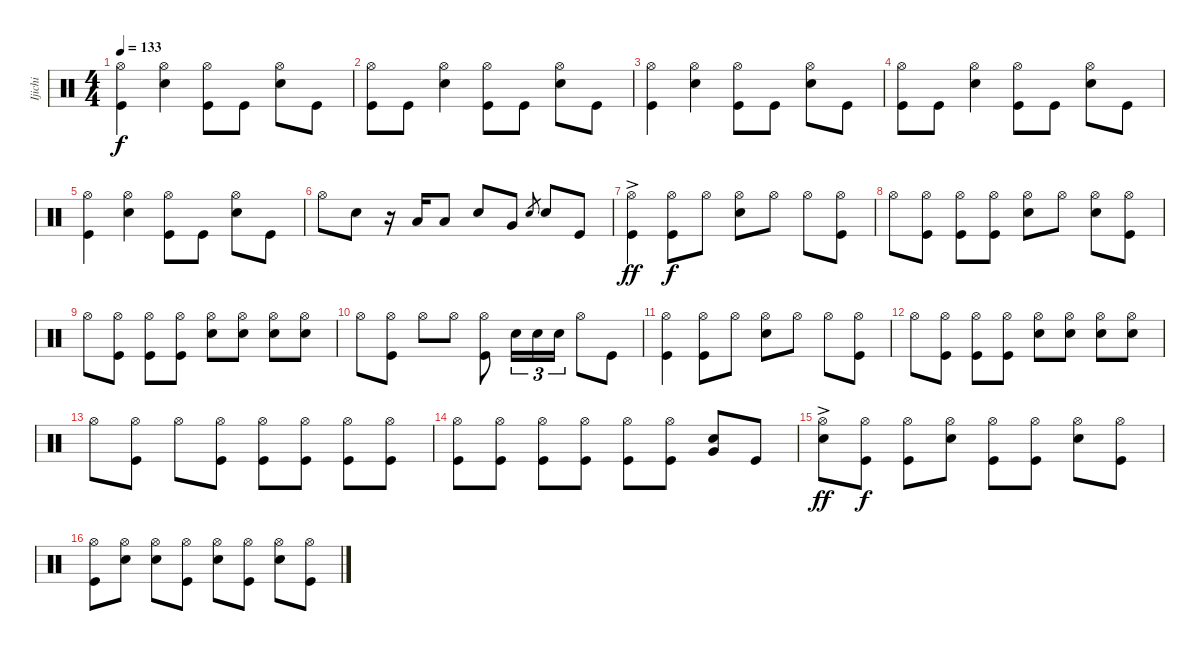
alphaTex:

\track ("Ijichi" "Ijichi") {instrument percussion}
\staff {score}
\articulation defaults
\ts (4 4)
\tempo 133
\clef neutral
\ks c
("Hi-Hat (open)" "Kick (hit)").4{dy f} ("Hi-Hat (open)" "Snare (hit) 2").4 ("Hi-Hat (open)" "Kick (hit)").8 "Kick (hit)".8 ("Hi-Hat (open)" "Snare (hit) 2").8 "Kick (hit)".8 |
("Hi-Hat (open)" "Kick (hit)").8 "Kick (hit)".8 ("Hi-Hat (open)" "Snare (hit) 2").4 ("Hi-Hat (open)" "Kick (hit)").8 "Kick (hit)".8 ("Hi-Hat (open)" "Snare (hit) 2").8 "Kick (hit)".8 |
("Hi-Hat (open)" "Kick (hit)").4 ("Hi-Hat (open)" "Snare (hit) 2").4 ("Hi-Hat (open)" "Kick (hit)").8 "Kick (hit)".8 ("Hi-Hat (open)" "Snare (hit) 2").8 "Kick (hit)".8 |
("Hi-Hat (open)" "Kick (hit)").8 "Kick (hit)".8 ("Hi-Hat (open)" "Snare (hit) 2").4 ("Hi-Hat (open)" "Kick (hit)").8 "Kick (hit)".8 ("Hi-Hat (open)" "Snare (hit) 2").8 "Kick (hit)".8 |
("Hi-Hat (open)" "Kick (hit)").4 ("Hi-Hat (open)" "Snare (hit) 2").4 ("Hi-Hat (open)" "Kick (hit)").8 "Kick (hit)".8 ("Hi-Hat (open)" "Snare (hit) 2").8 "Kick (hit)".8 |
"Hi-Hat (open)".8 "Snare (hit) 2".8 r.16 "Low Tom (hit)".16 "Low Tom (hit)".8 "Snare (hit) 2".8 "Very Low Tom (hit)".8 "Snare (hit) 2".8{gr} "Snare (hit) 2".8 "Kick (hit)".8 |
("Hi-Hat (open)"{ac} "Kick (hit)").4{dy ff} ("Hi-Hat (open)" "Kick (hit)").8{dy f} "Hi-Hat (open)".8 ("Hi-Hat (open)" "Snare (hit) 2").8 "Hi-Hat (open)".8 "Hi-Hat (open)".8 ("Hi-Hat (open)" "Kick (hit)").8 |
"Hi-Hat (open)".8 ("Hi-Hat (open)" "Kick (hit)").8 ("Hi-Hat (open)" "Kick (hit)").8 ("Hi-Hat (open)" "Kick (hit)").8 ("Hi-Hat (open)" "Snare (hit) 2").8 "Hi-Hat (open)".8 ("Hi-Hat (open)" "Snare (hit) 2").8 ("Hi-Hat (open)" "Kick (hit)").8 |
"Hi-Hat (open)".8 ("Hi-Hat (open)" "Kick (hit)").8 ("Hi-Hat (open)" "Kick (hit)").8 ("Hi-Hat (open)" "Kick (hit)").8 ("Hi-Hat (open)" "Snare (hit) 2").8 ("Hi-Hat (open)" "Snare (hit) 2").8 ("Hi-Hat (open)" "Snare (hit) 2").8 ("Hi-Hat (open)" "Snare (hit) 2").8 |
"Hi-Hat (open)".8 ("Hi-Hat (open)" "Kick (hit)").8 "Hi-Hat (open)".8 "Hi-Hat (open)".8 ("Hi-Hat (open)" "Kick (hit)").8 "Snare (hit) 2".16{tu (3 2)} "Snare (hit) 2".16{tu (3 2)} "Snare (hit) 2".16{tu (3 2)} "Hi-Hat (open)".8 "Kick (hit)".8 |
("Hi-Hat (open)" "Kick (hit)").4 ("Hi-Hat (open)" "Kick (hit)").8 "Hi-Hat (open)".8 ("Hi-Hat (open)" "Snare (hit) 2").8 "Hi-Hat (open)".8 "Hi-Hat (open)".8 ("Hi-Hat (open)" "Kick (hit)").8 |
"Hi-Hat (open)".8 ("Hi-Hat (open)" "Kick (hit)").8 ("Hi-Hat (open)" "Kick (hit)").8 ("Hi-Hat (open)" "Kick (hit)").8 ("Hi-Hat (open)" "Snare (hit) 2").8 ("Hi-Hat (open)" "Snare (hit) 2").8 ("Hi-Hat (open)" "Snare (hit) 2").8 ("Hi-Hat (open)" "Snare (hit) 2").8 |
"Hi-Hat (open)".8 ("Hi-Hat (open)" "Kick (hit)").8 "Hi-Hat (open)".8 ("Hi-Hat (open)" "Kick (hit)").8 ("Hi-Hat (open)" "Kick (hit)").8 ("Hi-Hat (open)" "Kick (hit)").8 ("Hi-Hat (open)" "Kick (hit)").8 ("Hi-Hat (open)" "Kick (hit)").8 |
("Hi-Hat (open)" "Kick (hit)").8 ("Hi-Hat (open)" "Kick (hit)").8 ("Hi-Hat (open)" "Kick (hit)").8 ("Hi-Hat (open)" "Kick (hit)").8 ("Hi-Hat (open)" "Kick (hit)").8 ("Hi-Hat (open)" "Kick (hit)").8 ("Snare (hit) 2" "Very Low Tom (hit)").8 "Kick (hit)".8 |
("Hi-Hat (open)"{ac} "Snare (hit) 2").8{dy ff} ("Hi-Hat (open)" "Kick (hit)").8{dy f} ("Hi-Hat (open)" "Kick (hit)").8 ("Hi-Hat (open)" "Snare (hit) 2").8 ("Hi-Hat (open)" "Kick (hit)").8 ("Hi-Hat (open)" "Kick (hit)").8 ("Hi-Hat (open)" "Snare (hit) 2").8 ("Hi-Hat (open)" "Kick (hit)").8 |
("Hi-Hat (open)" "Kick (hit)").8 ("Hi-Hat (open)" "Snare (hit) 2").8 ("Hi-Hat (open)" "Snare (hit) 2").8 ("Hi-Hat (open)" "Kick (hit)").8 ("Hi-Hat (open)" "Snare (hit) 2").8 ("Hi-Hat (open)" "Kick (hit)").8 ("Hi-Hat (open)" "Snare (hit) 2").8 ("Hi-Hat (open)" "Kick (hit)").8
